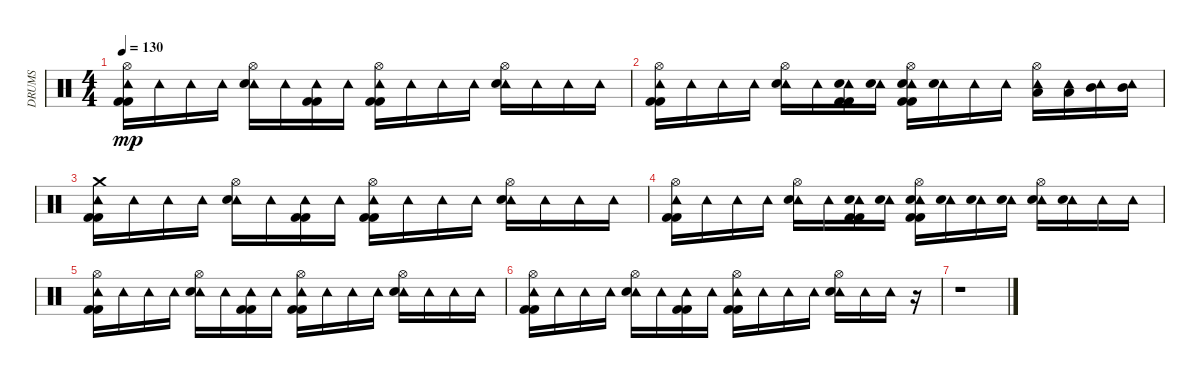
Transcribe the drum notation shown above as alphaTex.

\track ("DRUMS" "DRUMS") {instrument percussion}
\staff {score}
\articulation defaults
\ts (4 4)
\tempo 130
\clef neutral
\ks c
("Hi-Hat (open)" "Tambourine (hit)" "Kick (hit) 2" "Kick (hit) 2").16{dy mp} "Tambourine (hit)".16 "Tambourine (hit)".16 "Tambourine (hit)".16 ("Hi-Hat (open)" "Tambourine (hit)" "Snare (hit) 2").16 "Tambourine (hit)".16 ("Tambourine (hit)" "Kick (hit) 2" "Kick (hit) 2").16 "Tambourine (hit)".16 ("Hi-Hat (open)" "Tambourine (hit)" "Kick (hit) 2" "Kick (hit) 2").16 "Tambourine (hit)".16 "Tambourine (hit)".16 "Tambourine (hit)".16 ("Hi-Hat (open)" "Tambourine (hit)" "Snare (hit) 2").16 "Tambourine (hit)".16 "Tambourine (hit)".16 "Tambourine (hit)".16 |
("Hi-Hat (open)" "Tambourine (hit)" "Kick (hit) 2" "Kick (hit) 2").16 "Tambourine (hit)".16 "Tambourine (hit)".16 "Tambourine (hit)".16 ("Hi-Hat (open)" "Tambourine (hit)" "Snare (hit) 2").16 "Tambourine (hit)".16 ("Tambourine (hit)" "Electric Snare (hit)" "Kick (hit) 2" "Kick (hit) 2").16 ("Tambourine (hit)" "Electric Snare (hit)").16 ("Hi-Hat (open)" "Tambourine (hit)" "Electric Snare (hit)" "Kick (hit) 2" "Kick (hit) 2").16 ("Tambourine (hit)" "Snare (hit) 2").16 "Tambourine (hit)".16 "Tambourine (hit)".16 ("Hi-Hat (open)" "Tambourine (hit)" "Low Tom (hit)").16 ("Tambourine (hit)" "Low Tom (hit)").16 ("Tambourine (hit)" "Mid Tom (hit)").16 ("Tambourine (hit)" "Mid Tom (hit)").16 |
("Crash medium (hit)" "Tambourine (hit)" "Kick (hit) 2" "Kick (hit) 2").16 "Tambourine (hit)".16 "Tambourine (hit)".16 "Tambourine (hit)".16 ("Hi-Hat (open)" "Tambourine (hit)" "Snare (hit) 2").16 "Tambourine (hit)".16 ("Tambourine (hit)" "Kick (hit) 2" "Kick (hit) 2").16 "Tambourine (hit)".16 ("Hi-Hat (open)" "Tambourine (hit)" "Kick (hit) 2" "Kick (hit) 2").16 "Tambourine (hit)".16 "Tambourine (hit)".16 "Tambourine (hit)".16 ("Hi-Hat (open)" "Tambourine (hit)" "Snare (hit) 2").16 "Tambourine (hit)".16 "Tambourine (hit)".16 "Tambourine (hit)".16 |
("Hi-Hat (open)" "Tambourine (hit)" "Kick (hit) 2" "Kick (hit) 2").16 "Tambourine (hit)".16 "Tambourine (hit)".16 "Tambourine (hit)".16 ("Hi-Hat (open)" "Tambourine (hit)" "Snare (hit) 2").16 "Tambourine (hit)".16 ("Tambourine (hit)" "Electric Snare (hit)" "Kick (hit) 2" "Kick (hit) 2").16 ("Tambourine (hit)" "Electric Snare (hit)").16 ("Hi-Hat (open)" "Tambourine (hit)" "Electric Snare (hit)" "Kick (hit) 2" "Kick (hit) 2").16 ("Tambourine (hit)" "Snare (hit) 2").16 ("Tambourine (hit)" "Electric Snare (hit)").16 ("Tambourine (hit)" "Electric Snare (hit)").16 ("Hi-Hat (open)" "Tambourine (hit)" "Electric Snare (hit)").16 ("Tambourine (hit)" "Snare (hit) 2").16 "Tambourine (hit)".16 "Tambourine (hit)".16 |
("Hi-Hat (open)" "Tambourine (hit)" "Kick (hit) 2" "Kick (hit) 2").16 "Tambourine (hit)".16 "Tambourine (hit)".16 "Tambourine (hit)".16 ("Hi-Hat (open)" "Tambourine (hit)" "Snare (hit) 2").16 "Tambourine (hit)".16 ("Tambourine (hit)" "Kick (hit) 2" "Kick (hit) 2").16 "Tambourine (hit)".16 ("Hi-Hat (open)" "Tambourine (hit)" "Kick (hit) 2" "Kick (hit) 2").16 "Tambourine (hit)".16 "Tambourine (hit)".16 "Tambourine (hit)".16 ("Hi-Hat (open)" "Tambourine (hit)" "Snare (hit) 2").16 "Tambourine (hit)".16 "Tambourine (hit)".16 "Tambourine (hit)".16 |
("Hi-Hat (open)" "Tambourine (hit)" "Kick (hit) 2" "Kick (hit) 2").16 "Tambourine (hit)".16 "Tambourine (hit)".16 "Tambourine (hit)".16 ("Hi-Hat (open)" "Tambourine (hit)" "Snare (hit) 2").16 "Tambourine (hit)".16 ("Tambourine (hit)" "Kick (hit) 2" "Kick (hit) 2").16 "Tambourine (hit)".16 ("Hi-Hat (open)" "Tambourine (hit)" "Kick (hit) 2" "Kick (hit) 2").16 "Tambourine (hit)".16 "Tambourine (hit)".16 "Tambourine (hit)".16 ("Hi-Hat (open)" "Tambourine (hit)" "Snare (hit) 2").16 "Tambourine (hit)".16 "Tambourine (hit)".16 r.16 |
r.1
